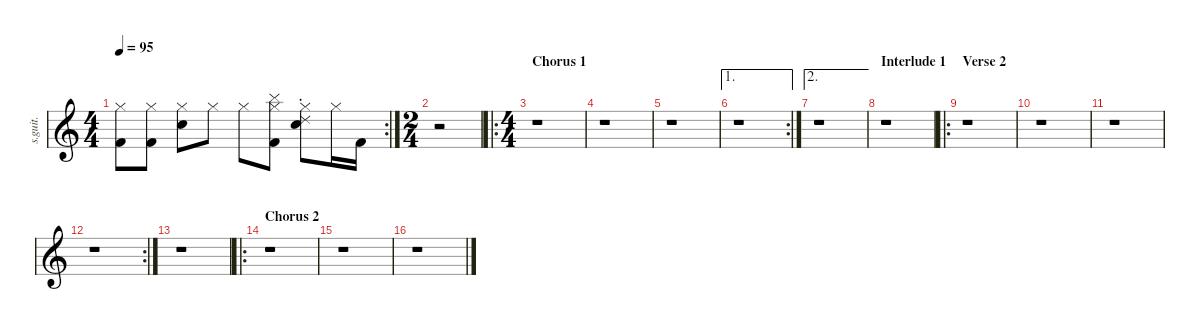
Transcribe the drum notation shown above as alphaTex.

\defaultSystemsLayout 4
\hideDynamics
\bracketExtendMode nobrackets
\track ("(Electronic Beats)" "s.guit.") {instrument percussion}
\staff {score}
\articulation defaults
\rc 2
\ts (4 4)
\tempo 95
\clef g2
\ks c
("Hi-Hat (closed)" "Kick (hit) 2").8{lyrics (0 "") lyrics (1 "") lyrics (2 "") lyrics (3 "") lyrics (4 "") dy mp} ("Hi-Hat (closed)" "Kick (hit) 2").8{lyrics (0 "") lyrics (1 "") lyrics (2 "") lyrics (3 "") lyrics (4 "")} ("Hi-Hat (closed)" "Snare (hit) 2").8{lyrics (0 "") lyrics (1 "") lyrics (2 "") lyrics (3 "") lyrics (4 "")} "Hi-Hat (closed)".8{lyrics (0 "") lyrics (1 "") lyrics (2 "") lyrics (3 "") lyrics (4 "")} "Hi-Hat (closed)".8{lyrics (0 "") lyrics (1 "") lyrics (2 "") lyrics (3 "") lyrics (4 "")} ("Hi-Hat (closed)" "Cymbal (hit)" "Kick (hit) 2").8{lyrics (0 "") lyrics (1 "") lyrics (2 "") lyrics (3 "") lyrics (4 "")} ("Hi-Hat (closed)" "Snare (hit) 2" "Ride (choke) 2").8{lyrics (0 "") lyrics (1 "") lyrics (2 "") lyrics (3 "") lyrics (4 "")} "Hi-Hat (closed)".16{lyrics (0 "") lyrics (1 "") lyrics (2 "") lyrics (3 "") lyrics (4 "")} "Kick (hit) 2".16{lyrics (0 "") lyrics (1 "") lyrics (2 "") lyrics (3 "") lyrics (4 "")} |
\ts (2 4)
\beaming (8 2 2 2 2)
r.2 |
\ro
\ts (4 4)
\beaming (8 2 2 2 2)
\section ("" "Chorus 1")
r.1 |
r.1 |
r.1 |
\ae 1
\rc 2
r.1 |
\ae 2
r.1 |
\section ("" "Interlude 1")
r.1 |
\ro
\section ("" "Verse 2")
r.1 |
r.1 |
r.1 |
\rc 2
r.1 |
r.1 |
\ro
\section ("" "Chorus 2")
r.1 |
r.1 |
r.1
